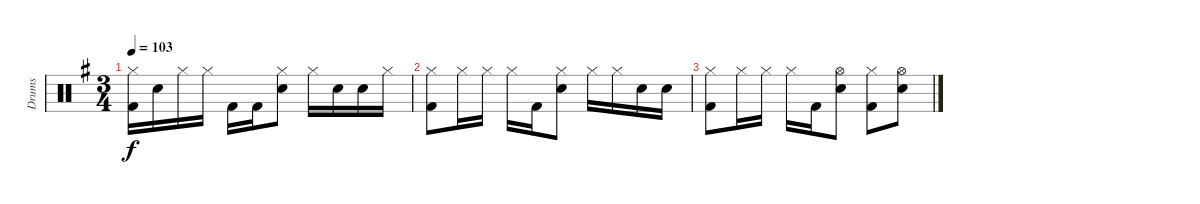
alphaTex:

\track ("Drums" "Drums") {instrument percussion}
\staff {score}
\articulation defaults
\ts (3 4)
\tempo 103
\clef neutral
\ks eminor
("Hi-Hat (closed)" "Kick (hit) 2").16{dy f} "Electric Snare (hit)".16 "Hi-Hat (closed)".16 "Hi-Hat (closed)".16 "Kick (hit) 2".16 "Kick (hit) 2".16 ("Hi-Hat (closed)" "Electric Snare (hit)").8 "Hi-Hat (closed)".16 "Electric Snare (hit)".16 "Electric Snare (hit)".16 "Hi-Hat (closed)".16 |
("Hi-Hat (closed)" "Kick (hit) 2").8 "Hi-Hat (closed)".16 "Hi-Hat (closed)".16 "Hi-Hat (closed)".16 "Kick (hit) 2".16 ("Hi-Hat (closed)" "Electric Snare (hit)").8 "Hi-Hat (closed)".16 "Hi-Hat (closed)".16 "Electric Snare (hit)".16 "Electric Snare (hit)".16 |
("Hi-Hat (closed)" "Kick (hit) 2").8 "Hi-Hat (closed)".16 "Hi-Hat (closed)".16 "Hi-Hat (closed)".16 "Kick (hit) 2".16 ("Hi-Hat (open)" "Electric Snare (hit)").8 ("Hi-Hat (closed)" "Kick (hit) 2").8 ("Hi-Hat (open)" "Electric Snare (hit)").8
